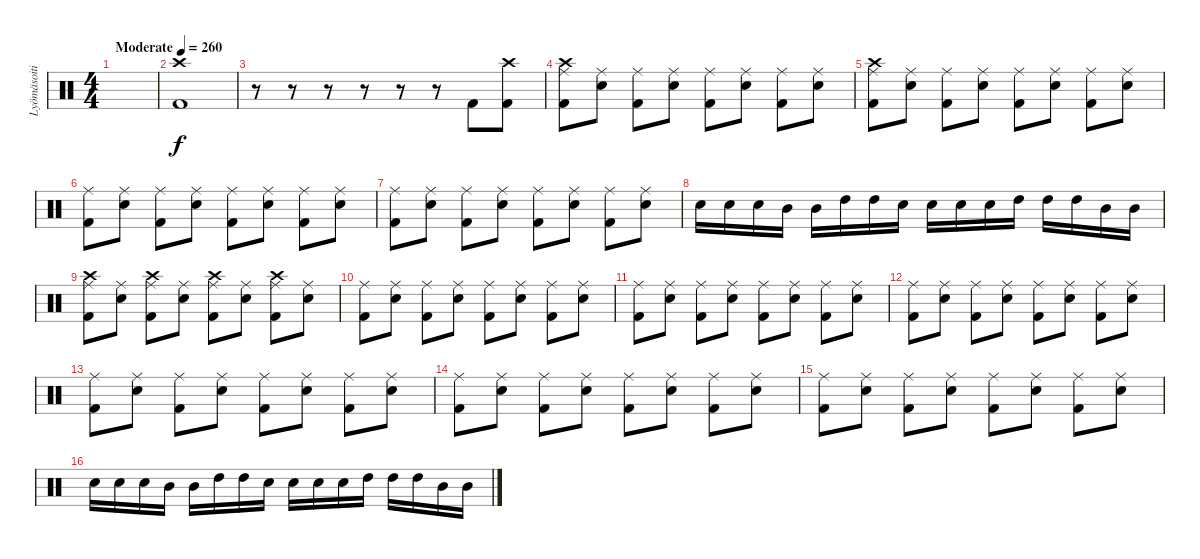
\track ("Lyömäsoitin" "Lyömäsoiti") {instrument percussion}
\staff {score}
\articulation defaults
\ts (4 4)
\tempo (260 "Moderate")
\clef neutral
\ks c
|
("Crash high (hit)" "Kick (hit) 2").1 |
r.8 r.8 r.8 r.8 r.8 r.8 "Kick (hit) 2".8 ("Crash high (hit)" "Kick (hit) 2").8 |
("Crash high (hit)" "Ride (middle)" "Kick (hit) 2").8 ("Ride (middle)" "Electric Snare (hit)").8 ("Ride (middle)" "Kick (hit) 2").8 ("Ride (middle)" "Electric Snare (hit)").8 ("Ride (middle)" "Kick (hit) 2").8 ("Ride (middle)" "Electric Snare (hit)").8 ("Ride (middle)" "Kick (hit) 2").8 ("Ride (middle)" "Electric Snare (hit)").8 |
("Crash high (hit)" "Ride (middle)" "Kick (hit) 2").8 ("Ride (middle)" "Electric Snare (hit)").8 ("Ride (middle)" "Kick (hit) 2").8 ("Ride (middle)" "Electric Snare (hit)").8 ("Ride (middle)" "Kick (hit) 2").8 ("Ride (middle)" "Electric Snare (hit)").8 ("Ride (middle)" "Kick (hit) 2").8 ("Ride (middle)" "Electric Snare (hit)").8 |
("Ride (middle)" "Kick (hit) 2").8 ("Ride (middle)" "Electric Snare (hit)").8 ("Ride (middle)" "Kick (hit) 2").8 ("Ride (middle)" "Electric Snare (hit)").8 ("Ride (middle)" "Kick (hit) 2").8 ("Ride (middle)" "Electric Snare (hit)").8 ("Ride (middle)" "Kick (hit) 2").8 ("Ride (middle)" "Electric Snare (hit)").8 |
("Ride (middle)" "Kick (hit) 2").8 ("Ride (middle)" "Electric Snare (hit)").8 ("Ride (middle)" "Kick (hit) 2").8 ("Ride (middle)" "Electric Snare (hit)").8 ("Ride (middle)" "Kick (hit) 2").8 ("Ride (middle)" "Electric Snare (hit)").8 ("Ride (middle)" "Kick (hit) 2").8 ("Ride (middle)" "Electric Snare (hit)").8 |
"Electric Snare (hit)".16 "Electric Snare (hit)".16 "Electric Snare (hit)".16 "Mid Tom (hit)".16 "Mid Tom (hit)".16 "High Tom (hit)".16 "High Tom (hit)".16 "Electric Snare (hit)".16 "Electric Snare (hit)".16 "Electric Snare (hit)".16 "Electric Snare (hit)".16 "High Tom (hit)".16 "High Tom (hit)".16 "High Tom (hit)".16 "Mid Tom (hit)".16 "Mid Tom (hit)".16 |
("Crash high (hit)" "Ride (middle)" "Kick (hit) 2").8 ("Ride (middle)" "Electric Snare (hit)").8 ("Crash high (hit)" "Ride (middle)" "Kick (hit) 2").8 ("Ride (middle)" "Electric Snare (hit)").8 ("Crash high (hit)" "Ride (middle)" "Kick (hit) 2").8 ("Ride (middle)" "Electric Snare (hit)").8 ("Crash high (hit)" "Ride (middle)" "Kick (hit) 2").8 ("Ride (middle)" "Electric Snare (hit)").8 |
("Ride (middle)" "Kick (hit) 2").8 ("Ride (middle)" "Electric Snare (hit)").8 ("Ride (middle)" "Kick (hit) 2").8 ("Ride (middle)" "Electric Snare (hit)").8 ("Ride (middle)" "Kick (hit) 2").8 ("Ride (middle)" "Electric Snare (hit)").8 ("Ride (middle)" "Kick (hit) 2").8 ("Ride (middle)" "Electric Snare (hit)").8 |
("Ride (middle)" "Kick (hit) 2").8 ("Ride (middle)" "Electric Snare (hit)").8 ("Ride (middle)" "Kick (hit) 2").8 ("Ride (middle)" "Electric Snare (hit)").8 ("Ride (middle)" "Kick (hit) 2").8 ("Ride (middle)" "Electric Snare (hit)").8 ("Ride (middle)" "Kick (hit) 2").8 ("Ride (middle)" "Electric Snare (hit)").8 |
("Ride (middle)" "Kick (hit) 2").8 ("Ride (middle)" "Electric Snare (hit)").8 ("Ride (middle)" "Kick (hit) 2").8 ("Ride (middle)" "Electric Snare (hit)").8 ("Ride (middle)" "Kick (hit) 2").8 ("Ride (middle)" "Electric Snare (hit)").8 ("Ride (middle)" "Kick (hit) 2").8 ("Ride (middle)" "Electric Snare (hit)").8 |
("Ride (middle)" "Kick (hit) 2").8 ("Ride (middle)" "Electric Snare (hit)").8 ("Ride (middle)" "Kick (hit) 2").8 ("Ride (middle)" "Electric Snare (hit)").8 ("Ride (middle)" "Kick (hit) 2").8 ("Ride (middle)" "Electric Snare (hit)").8 ("Ride (middle)" "Kick (hit) 2").8 ("Ride (middle)" "Electric Snare (hit)").8 |
("Ride (middle)" "Kick (hit) 2").8 ("Ride (middle)" "Electric Snare (hit)").8 ("Ride (middle)" "Kick (hit) 2").8 ("Ride (middle)" "Electric Snare (hit)").8 ("Ride (middle)" "Kick (hit) 2").8 ("Ride (middle)" "Electric Snare (hit)").8 ("Ride (middle)" "Kick (hit) 2").8 ("Ride (middle)" "Electric Snare (hit)").8 |
("Ride (middle)" "Kick (hit) 2").8 ("Ride (middle)" "Electric Snare (hit)").8 ("Ride (middle)" "Kick (hit) 2").8 ("Ride (middle)" "Electric Snare (hit)").8 ("Ride (middle)" "Kick (hit) 2").8 ("Ride (middle)" "Electric Snare (hit)").8 ("Ride (middle)" "Kick (hit) 2").8 ("Ride (middle)" "Electric Snare (hit)").8 |
"Electric Snare (hit)".16 "Electric Snare (hit)".16 "Electric Snare (hit)".16 "Mid Tom (hit)".16 "Mid Tom (hit)".16 "High Tom (hit)".16 "High Tom (hit)".16 "Electric Snare (hit)".16 "Electric Snare (hit)".16 "Electric Snare (hit)".16 "Electric Snare (hit)".16 "High Tom (hit)".16 "High Tom (hit)".16 "High Tom (hit)".16 "Mid Tom (hit)".16 "Mid Tom (hit)".16
